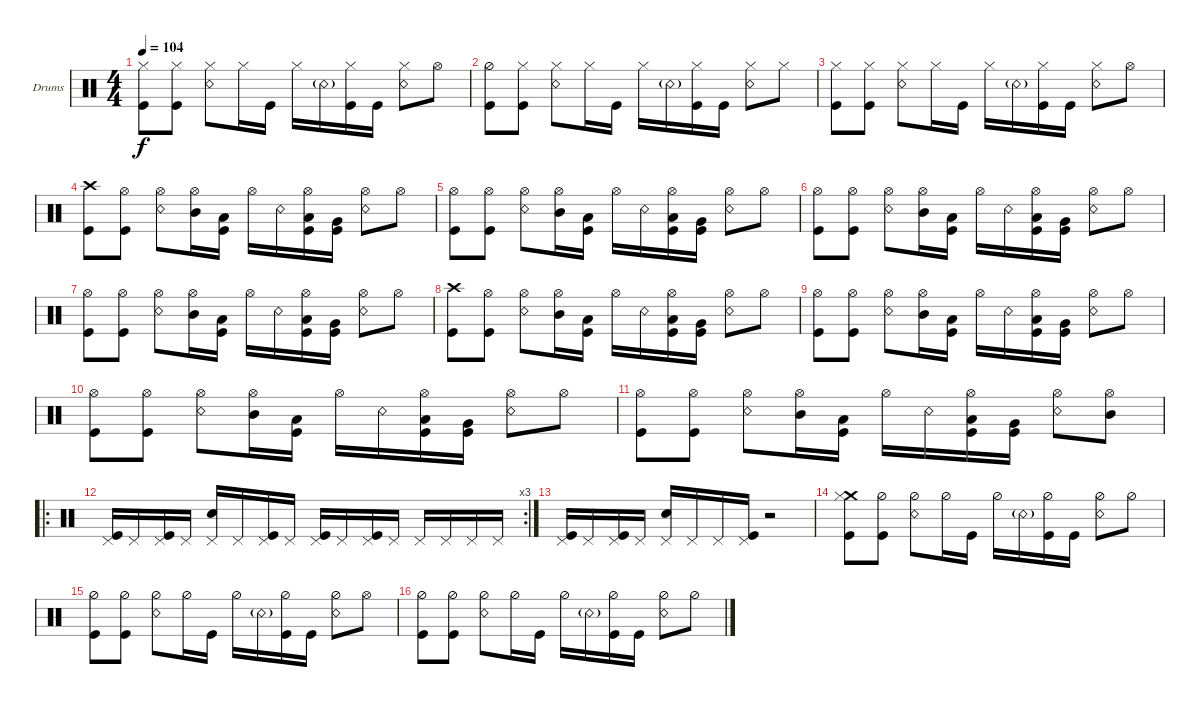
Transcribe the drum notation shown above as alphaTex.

\defaultSystemsLayout 4
\bracketExtendMode groupsimilarinstruments
\firstSystemTrackNameOrientation horizontal
\otherSystemsTrackNameOrientation horizontal
\track ("Drumkit" "Drums") {instrument percussion}
\staff {score}
\articulation defaults
\ts (4 4)
\tempo 104
\clef neutral
\ks c
("Kick (hit)" "Hi-Hat (closed)").8{dy f} ("Kick (hit)" "Hi-Hat (closed)").8 ("Snare (rim shot)" "Hi-Hat (closed)").8 "Hi-Hat (closed)".16 "Kick (hit)".16 "Hi-Hat (closed)".16 "Snare (rim shot)"{g}.16 ("Kick (hit)" "Hi-Hat (closed)").16 "Kick (hit)".16 ("Snare (rim shot)" "Hi-Hat (closed)").8 "Hi-Hat (open)".8 |
("Kick (hit)" "Hi-Hat (half)").8 ("Kick (hit)" "Hi-Hat (closed)").8 ("Snare (rim shot)" "Hi-Hat (closed)").8 "Hi-Hat (closed)".16 "Kick (hit)".16 "Hi-Hat (closed)".16 "Snare (rim shot)"{g}.16 ("Kick (hit)" "Hi-Hat (closed)").16 "Kick (hit)".16 ("Hi-Hat (closed)" "Snare (rim shot)").8 "Hi-Hat (closed)".8 |
("Kick (hit)" "Hi-Hat (closed)").8 ("Kick (hit)" "Hi-Hat (closed)").8 ("Snare (rim shot)" "Hi-Hat (closed)").8 "Hi-Hat (closed)".16 "Kick (hit)".16 "Hi-Hat (closed)".16 "Snare (rim shot)"{g}.16 ("Kick (hit)" "Hi-Hat (closed)").16 "Kick (hit)".16 ("Snare (rim shot)" "Hi-Hat (closed)").8 "Hi-Hat (open)".8 |
("Kick (hit)" "Crash high (hit)").8 ("Kick (hit)" "Hi-Hat (open)").8 ("Snare (rim shot)" "Hi-Hat (open)").8 ("Mid Tom (hit)" "Hi-Hat (open)").16 ("Low Tom (hit)" "Kick (hit)").16 "Hi-Hat (open)".16 "Snare (rim shot)".16 ("Low Tom (hit)" "Kick (hit)" "Hi-Hat (open)").16 ("Very Low Tom (hit)" "Kick (hit)").16 ("Snare (rim shot)" "Hi-Hat (open)").8 "Hi-Hat (open)".8 |
("Kick (hit)" "Hi-Hat (open)").8 ("Kick (hit)" "Hi-Hat (open)").8 ("Snare (rim shot)" "Hi-Hat (open)").8 ("Mid Tom (hit)" "Hi-Hat (open)").16 ("Low Tom (hit)" "Kick (hit)").16 "Hi-Hat (open)".16 "Snare (rim shot)".16 ("Low Tom (hit)" "Kick (hit)" "Hi-Hat (open)").16 ("Very Low Tom (hit)" "Kick (hit)").16 ("Snare (rim shot)" "Hi-Hat (open)").8 "Hi-Hat (open)".8 |
("Kick (hit)" "Hi-Hat (open)").8 ("Kick (hit)" "Hi-Hat (open)").8 ("Snare (rim shot)" "Hi-Hat (open)").8 ("Mid Tom (hit)" "Hi-Hat (open)").16 ("Low Tom (hit)" "Kick (hit)").16 "Hi-Hat (open)".16 "Snare (rim shot)".16 ("Low Tom (hit)" "Kick (hit)" "Hi-Hat (open)").16 ("Very Low Tom (hit)" "Kick (hit)").16 ("Snare (rim shot)" "Hi-Hat (open)").8 "Hi-Hat (open)".8 |
("Kick (hit)" "Hi-Hat (open)").8 ("Kick (hit)" "Hi-Hat (open)").8 ("Snare (rim shot)" "Hi-Hat (open)").8 ("Mid Tom (hit)" "Hi-Hat (open)").16 ("Low Tom (hit)" "Kick (hit)").16 "Hi-Hat (open)".16 "Snare (rim shot)".16 ("Low Tom (hit)" "Kick (hit)" "Hi-Hat (open)").16 ("Very Low Tom (hit)" "Kick (hit)").16 ("Snare (rim shot)" "Hi-Hat (open)").8 "Hi-Hat (open)".8 |
("Kick (hit)" "Crash high (hit)").8 ("Kick (hit)" "Hi-Hat (open)").8 ("Snare (rim shot)" "Hi-Hat (open)").8 ("Mid Tom (hit)" "Hi-Hat (open)").16 ("Low Tom (hit)" "Kick (hit)").16 "Hi-Hat (open)".16 "Snare (rim shot)".16 ("Low Tom (hit)" "Kick (hit)" "Hi-Hat (open)").16 ("Very Low Tom (hit)" "Kick (hit)").16 ("Snare (rim shot)" "Hi-Hat (open)").8 "Hi-Hat (open)".8 |
("Kick (hit)" "Hi-Hat (open)").8 ("Kick (hit)" "Hi-Hat (open)").8 ("Snare (rim shot)" "Hi-Hat (open)").8 ("Mid Tom (hit)" "Hi-Hat (open)").16 ("Low Tom (hit)" "Kick (hit)").16 "Hi-Hat (open)".16 "Snare (rim shot)".16 ("Low Tom (hit)" "Kick (hit)" "Hi-Hat (open)").16 ("Very Low Tom (hit)" "Kick (hit)").16 ("Snare (rim shot)" "Hi-Hat (open)").8 "Hi-Hat (open)".8 |
("Kick (hit)" "Hi-Hat (open)").8 ("Kick (hit)" "Hi-Hat (open)").8 ("Snare (rim shot)" "Hi-Hat (open)").8 ("Mid Tom (hit)" "Hi-Hat (open)").16 ("Low Tom (hit)" "Kick (hit)").16 "Hi-Hat (open)".16 "Snare (rim shot)".16 ("Low Tom (hit)" "Kick (hit)" "Hi-Hat (open)").16 ("Very Low Tom (hit)" "Kick (hit)").16 ("Snare (rim shot)" "Hi-Hat (open)").8 "Hi-Hat (open)".8 |
("Kick (hit)" "Hi-Hat (open)").8 ("Kick (hit)" "Hi-Hat (open)").8 ("Snare (rim shot)" "Hi-Hat (open)").8 ("Mid Tom (hit)" "Hi-Hat (open)").16 ("Low Tom (hit)" "Kick (hit)").16 "Hi-Hat (open)".16 "Snare (rim shot)".16 ("Low Tom (hit)" "Kick (hit)" "Hi-Hat (open)").16 ("Very Low Tom (hit)" "Kick (hit)").16 ("Hi-Hat (open)" "Snare (rim shot)").8 ("Hi-Hat (open)" "Mid Tom (hit)").8 |
\ro
\rc 3
("Pedal Hi-Hat (hit)" "Kick (hit)").16 "Pedal Hi-Hat (hit)".16 ("Pedal Hi-Hat (hit)" "Kick (hit)").16 "Pedal Hi-Hat (hit)".16 ("Pedal Hi-Hat (hit)" "Snare (hit) 2").16 "Pedal Hi-Hat (hit)".16 ("Pedal Hi-Hat (hit)" "Kick (hit)").16 "Pedal Hi-Hat (hit)".16 ("Pedal Hi-Hat (hit)" "Kick (hit)").16 "Pedal Hi-Hat (hit)".16 ("Pedal Hi-Hat (hit)" "Kick (hit)").16 "Pedal Hi-Hat (hit)".16 "Pedal Hi-Hat (hit)".16 "Pedal Hi-Hat (hit)".16 "Pedal Hi-Hat (hit)".16 "Pedal Hi-Hat (hit)".16 |
("Pedal Hi-Hat (hit)" "Kick (hit)").16 "Pedal Hi-Hat (hit)".16 ("Pedal Hi-Hat (hit)" "Kick (hit)").16 "Pedal Hi-Hat (hit)".16 ("Pedal Hi-Hat (hit)" "Snare (hit) 2").16 "Pedal Hi-Hat (hit)".16 "Pedal Hi-Hat (hit)".16 ("Kick (hit)" "Pedal Hi-Hat (hit)").16 r.2 |
("Crash medium (hit)" "Kick (hit)" "Hi-Hat (closed)").8 ("Kick (hit)" "Hi-Hat (half)").8 ("Snare (rim shot)" "Hi-Hat (half)").8 "Hi-Hat (half)".16 "Kick (hit)".16 "Hi-Hat (half)".16 "Snare (rim shot)"{g}.16 ("Kick (hit)" "Hi-Hat (half)").16 "Kick (hit)".16 ("Hi-Hat (half)" "Snare (rim shot)").8 "Hi-Hat (half)".8 |
("Kick (hit)" "Hi-Hat (half)").8 ("Kick (hit)" "Hi-Hat (half)").8 ("Snare (rim shot)" "Hi-Hat (half)").8 "Hi-Hat (half)".16 "Kick (hit)".16 "Hi-Hat (half)".16 "Snare (rim shot)"{g}.16 ("Kick (hit)" "Hi-Hat (half)").16 "Kick (hit)".16 ("Snare (rim shot)" "Hi-Hat (half)").8 "Hi-Hat (open)".8 |
("Kick (hit)" "Hi-Hat (half)").8 ("Kick (hit)" "Hi-Hat (half)").8 ("Snare (rim shot)" "Hi-Hat (half)").8 "Hi-Hat (half)".16 "Kick (hit)".16 "Hi-Hat (half)".16 "Snare (rim shot)"{g}.16 ("Kick (hit)" "Hi-Hat (half)").16 "Kick (hit)".16 ("Hi-Hat (half)" "Snare (rim shot)").8 "Hi-Hat (half)".8
